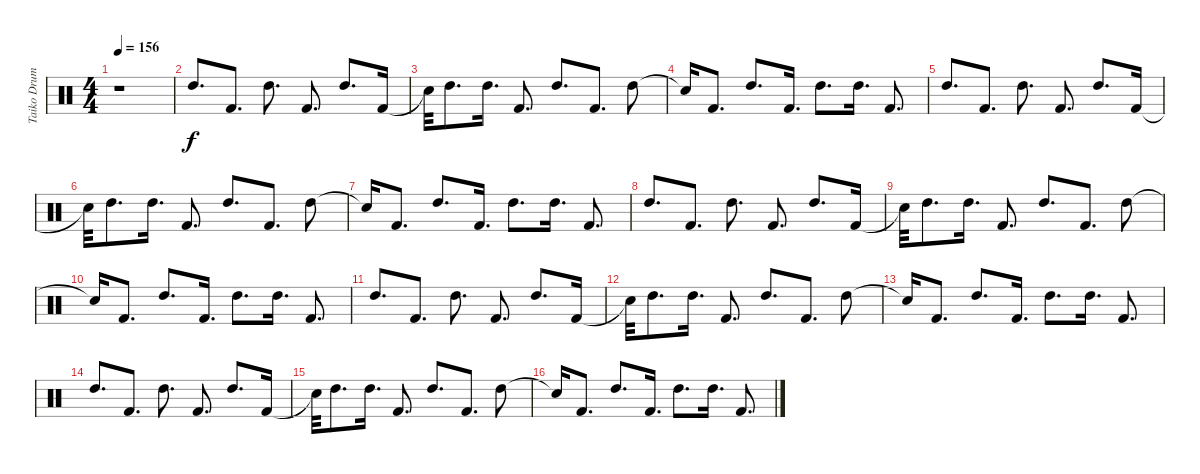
\track ("Taiko Drum" "Taiko Drum") {instrument percussion}
\staff {score}
\articulation defaults
\ts (4 4)
\tempo 156
\clef neutral
\ks c
r.1{dy f} |
"High Tom (hit)".8{d} "Kick (hit) 2".8{d} "High Tom (hit)".8{d} "Kick (hit) 2".8{d} "High Tom (hit)".8{d} "Kick (hit) 2".16 |
"Snare (hit)"{t}.32 "High Tom (hit)".8{d} "High Tom (hit)".16{d} "Kick (hit) 2".8{d} "High Tom (hit)".8{d} "Kick (hit) 2".8{d} "High Tom (hit)".8 |
"Snare (hit)"{t}.16 "Kick (hit) 2".8{d} "High Tom (hit)".8{d} "Kick (hit) 2".16{d} "High Tom (hit)".8{d} "High Tom (hit)".16{d} "Kick (hit) 2".8{d} |
"High Tom (hit)".8{d} "Kick (hit) 2".8{d} "High Tom (hit)".8{d} "Kick (hit) 2".8{d} "High Tom (hit)".8{d} "Kick (hit) 2".16 |
"Snare (hit)"{t}.32 "High Tom (hit)".8{d} "High Tom (hit)".16{d} "Kick (hit) 2".8{d} "High Tom (hit)".8{d} "Kick (hit) 2".8{d} "High Tom (hit)".8 |
"Snare (hit)"{t}.16 "Kick (hit) 2".8{d} "High Tom (hit)".8{d} "Kick (hit) 2".16{d} "High Tom (hit)".8{d} "High Tom (hit)".16{d} "Kick (hit) 2".8{d} |
"High Tom (hit)".8{d} "Kick (hit) 2".8{d} "High Tom (hit)".8{d} "Kick (hit) 2".8{d} "High Tom (hit)".8{d} "Kick (hit) 2".16 |
"Snare (hit)"{t}.32 "High Tom (hit)".8{d} "High Tom (hit)".16{d} "Kick (hit) 2".8{d} "High Tom (hit)".8{d} "Kick (hit) 2".8{d} "High Tom (hit)".8 |
"Snare (hit)"{t}.16 "Kick (hit) 2".8{d} "High Tom (hit)".8{d} "Kick (hit) 2".16{d} "High Tom (hit)".8{d} "High Tom (hit)".16{d} "Kick (hit) 2".8{d} |
"High Tom (hit)".8{d} "Kick (hit) 2".8{d} "High Tom (hit)".8{d} "Kick (hit) 2".8{d} "High Tom (hit)".8{d} "Kick (hit) 2".16 |
"Snare (hit)"{t}.32 "High Tom (hit)".8{d} "High Tom (hit)".16{d} "Kick (hit) 2".8{d} "High Tom (hit)".8{d} "Kick (hit) 2".8{d} "High Tom (hit)".8 |
"Snare (hit)"{t}.16 "Kick (hit) 2".8{d} "High Tom (hit)".8{d} "Kick (hit) 2".16{d} "High Tom (hit)".8{d} "High Tom (hit)".16{d} "Kick (hit) 2".8{d} |
"High Tom (hit)".8{d} "Kick (hit) 2".8{d} "High Tom (hit)".8{d} "Kick (hit) 2".8{d} "High Tom (hit)".8{d} "Kick (hit) 2".16 |
"Snare (hit)"{t}.32 "High Tom (hit)".8{d} "High Tom (hit)".16{d} "Kick (hit) 2".8{d} "High Tom (hit)".8{d} "Kick (hit) 2".8{d} "High Tom (hit)".8 |
"Snare (hit)"{t}.16 "Kick (hit) 2".8{d} "High Tom (hit)".8{d} "Kick (hit) 2".16{d} "High Tom (hit)".8{d} "High Tom (hit)".16{d} "Kick (hit) 2".8{d}
